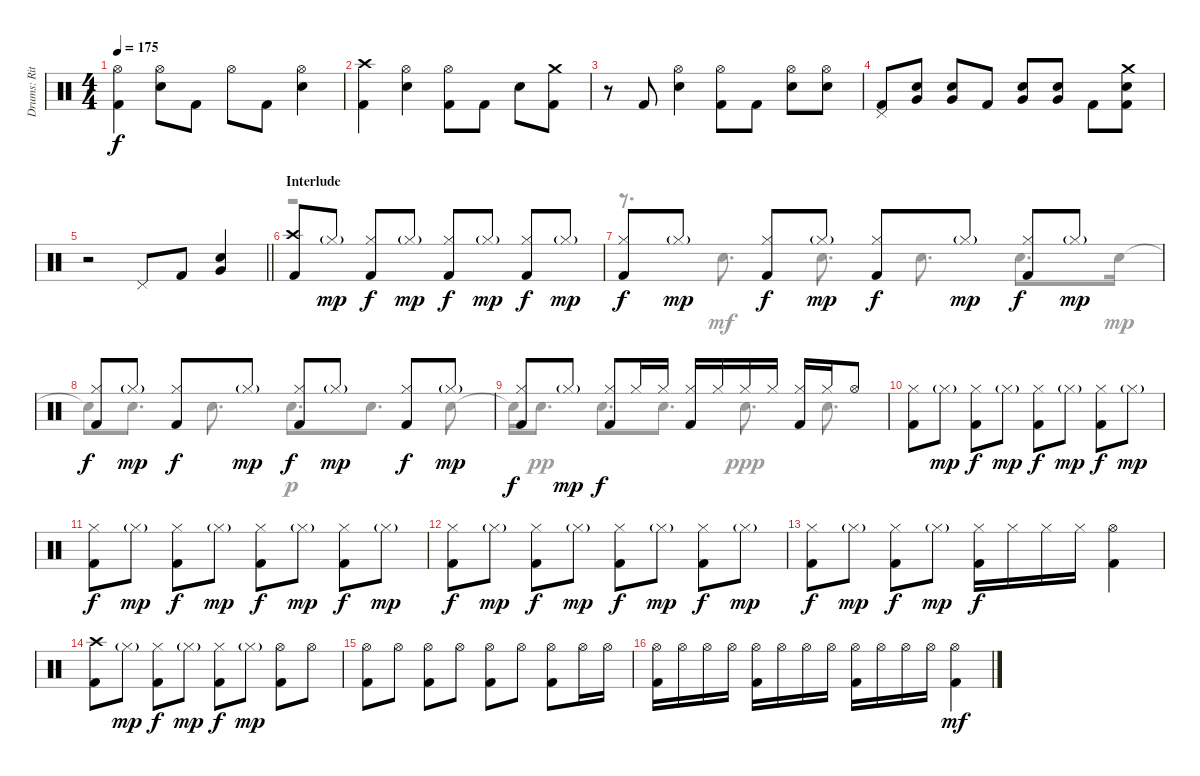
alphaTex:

\track ("Drums: Ritsu Tainaka" "Drums: Rit") {instrument percussion}
\staff {score}
\articulation defaults
\voice
\ts (4 4)
\tempo 175
\clef neutral
\ks c
("Hi-Hat (open)" "Kick (hit) 2").4{dy f} ("Hi-Hat (open)" "Snare (hit) 2").8 "Kick (hit) 2".8 "Hi-Hat (open)".8 "Kick (hit) 2".8 ("Hi-Hat (open)" "Snare (hit) 2").4 |
("Crash high (hit)" "Kick (hit) 2").4 ("Hi-Hat (open)" "Snare (hit) 2").4 ("Hi-Hat (open)" "Kick (hit) 2").8 "Kick (hit) 2".8 "Snare (hit) 2".8 ("Crash medium (hit)" "Kick (hit) 2").8 |
r.8 "Kick (hit) 2".8 ("Hi-Hat (open)" "Snare (hit) 2").4 ("Hi-Hat (open)" "Kick (hit) 2").8 "Kick (hit) 2".8 ("Hi-Hat (open)" "Snare (hit) 2").8 ("Hi-Hat (open)" "Snare (hit) 2").8 |
("Pedal Hi-Hat (hit)" "Kick (hit) 2").8 ("Snare (hit) 2" "Very Low Tom (hit)").8 ("Snare (hit) 2" "Very Low Tom (hit)").8 "Kick (hit) 2".8 ("Snare (hit) 2" "Very Low Tom (hit)").8 ("Snare (hit) 2" "Very Low Tom (hit)").8 "Kick (hit) 2".8 ("Crash medium (hit)" "Snare (hit) 2" "Kick (hit) 2").8 |
\barLineRight lightlight
r.2 "Pedal Hi-Hat (hit)".8 "Kick (hit) 2".8 ("Snare (hit) 2" "Very Low Tom (hit)").4 |
\section ("" "Interlude")
("Crash high (hit)" "Kick (hit) 2").8 "Hi-Hat (closed)"{g}.8{dy mp} ("Hi-Hat (closed)" "Kick (hit) 2").8{dy f} "Hi-Hat (closed)"{g}.8{dy mp} ("Hi-Hat (closed)" "Kick (hit) 2").8{dy f} "Hi-Hat (closed)"{g}.8{dy mp} ("Hi-Hat (closed)" "Kick (hit) 2").8{dy f} "Hi-Hat (closed)"{g}.8{dy mp} |
("Hi-Hat (closed)" "Kick (hit) 2").8{dy f} "Hi-Hat (closed)"{g}.8{dy mp} ("Hi-Hat (closed)" "Kick (hit) 2").8{dy f} "Hi-Hat (closed)"{g}.8{dy mp} ("Hi-Hat (closed)" "Kick (hit) 2").8{dy f} "Hi-Hat (closed)"{g}.8{dy mp} ("Hi-Hat (closed)" "Kick (hit) 2").8{dy f} "Hi-Hat (closed)"{g}.8{dy mp} |
("Hi-Hat (closed)" "Kick (hit) 2").8{dy f} "Hi-Hat (closed)"{g}.8{dy mp} ("Hi-Hat (closed)" "Kick (hit) 2").8{dy f} "Hi-Hat (closed)"{g}.8{dy mp} ("Hi-Hat (closed)" "Kick (hit) 2").8{dy f} "Hi-Hat (closed)"{g}.8{dy mp} ("Hi-Hat (closed)" "Kick (hit) 2").8{dy f} "Hi-Hat (closed)"{g}.8{dy mp} |
("Hi-Hat (closed)" "Kick (hit) 2").8{dy f} "Hi-Hat (closed)"{g}.8{dy mp} ("Hi-Hat (closed)" "Kick (hit) 2").8{dy f} "Hi-Hat (closed)".16 "Hi-Hat (closed)".16 ("Hi-Hat (closed)" "Kick (hit) 2").16 "Hi-Hat (closed)".16 "Hi-Hat (closed)".16 "Hi-Hat (closed)".16 ("Hi-Hat (closed)" "Kick (hit) 2").16 "Hi-Hat (closed)".16 "Hi-Hat (open)".8 |
("Hi-Hat (closed)" "Kick (hit) 2").8 "Hi-Hat (closed)"{g}.8{dy mp} ("Hi-Hat (closed)" "Kick (hit) 2").8{dy f} "Hi-Hat (closed)"{g}.8{dy mp} ("Hi-Hat (closed)" "Kick (hit) 2").8{dy f} "Hi-Hat (closed)"{g}.8{dy mp} ("Hi-Hat (closed)" "Kick (hit) 2").8{dy f} "Hi-Hat (closed)"{g}.8{dy mp} |
("Hi-Hat (closed)" "Kick (hit) 2").8{dy f} "Hi-Hat (closed)"{g}.8{dy mp} ("Hi-Hat (closed)" "Kick (hit) 2").8{dy f} "Hi-Hat (closed)"{g}.8{dy mp} ("Hi-Hat (closed)" "Kick (hit) 2").8{dy f} "Hi-Hat (closed)"{g}.8{dy mp} ("Hi-Hat (closed)" "Kick (hit) 2").8{dy f} "Hi-Hat (closed)"{g}.8{dy mp} |
("Hi-Hat (closed)" "Kick (hit) 2").8{dy f} "Hi-Hat (closed)"{g}.8{dy mp} ("Hi-Hat (closed)" "Kick (hit) 2").8{dy f} "Hi-Hat (closed)"{g}.8{dy mp} ("Hi-Hat (closed)" "Kick (hit) 2").8{dy f} "Hi-Hat (closed)"{g}.8{dy mp} ("Hi-Hat (closed)" "Kick (hit) 2").8{dy f} "Hi-Hat (closed)"{g}.8{dy mp} |
("Hi-Hat (closed)" "Kick (hit) 2").8{dy f} "Hi-Hat (closed)"{g}.8{dy mp} ("Hi-Hat (closed)" "Kick (hit) 2").8{dy f} "Hi-Hat (closed)"{g}.8{dy mp} ("Hi-Hat (closed)" "Kick (hit) 2").16{dy f} "Hi-Hat (closed)".16 "Hi-Hat (closed)".16 "Hi-Hat (closed)".16 ("Hi-Hat (open)" "Kick (hit) 2").4 |
("Crash high (hit)" "Kick (hit) 2").8 "Hi-Hat (closed)"{g}.8{dy mp} ("Hi-Hat (closed)" "Kick (hit) 2").8{dy f} "Hi-Hat (closed)"{g}.8{dy mp} ("Hi-Hat (closed)" "Kick (hit) 2").8{dy f} "Hi-Hat (closed)"{g}.8{dy mp} ("Hi-Hat (open)" "Kick (hit) 2").8 "Hi-Hat (open)".8 |
("Hi-Hat (open)" "Kick (hit) 2").8 "Hi-Hat (open)".8 ("Hi-Hat (open)" "Kick (hit) 2").8 "Hi-Hat (open)".8 ("Hi-Hat (open)" "Kick (hit) 2").8 "Hi-Hat (open)".8 ("Hi-Hat (open)" "Kick (hit) 2").8 "Hi-Hat (open)".16 "Hi-Hat (open)".16 |
("Hi-Hat (open)" "Kick (hit) 2").16 "Hi-Hat (open)".16 "Hi-Hat (open)".16 "Hi-Hat (open)".16 ("Hi-Hat (open)" "Kick (hit) 2").16 "Hi-Hat (open)".16 "Hi-Hat (open)".16 "Hi-Hat (open)".16 ("Hi-Hat (open)" "Kick (hit) 2").16 "Hi-Hat (open)".16 "Hi-Hat (open)".16 "Hi-Hat (open)".16 ("Hi-Hat (open)" "Kick (hit) 2").4{dy mf}
\voice
\clef neutral
\ottava regular
\simile none
\ks c
|
|
|
|
\barLineRight lightlight
|
r.1 |
r.8{d} "Electric Snare (hit)".8{d} "Electric Snare (hit)".8{d dy mf} "Electric Snare (hit)".8{d} "Electric Snare (hit)".8{d} "Electric Snare (hit)".16{dy mp} |
"Snare (hit)"{t}.8{dy f} "Electric Snare (hit)".8{d dy mp} "Electric Snare (hit)".8{d} "Electric Snare (hit)".8{d dy p} "Electric Snare (hit)".8{d} "Electric Snare (hit)".8 |
"Snare (hit)"{t}.16{dy f} "Electric Snare (hit)".8{d dy pp} "Electric Snare (hit)".8{d} "Electric Snare (hit)".8{d} "Electric Snare (hit)".8{d dy ppp} "Electric Snare (hit)".8{d} |
|
|
|
|
|
|
